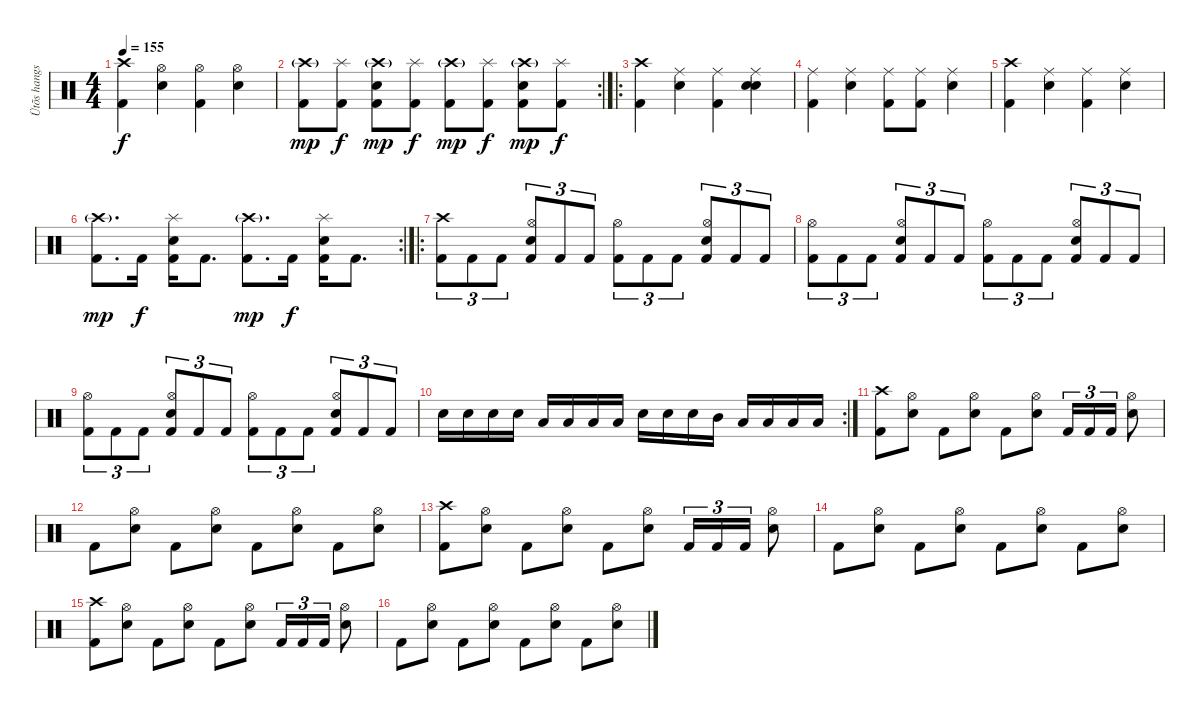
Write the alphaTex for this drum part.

\track ("Ütõs hangszer" "Ütõs hangs") {instrument percussion}
\staff {score}
\articulation defaults
\ts (4 4)
\tempo 155
\clef neutral
\ks c
("Crash high (hit)" "Kick (hit) 2").4{dy f} ("Hi-Hat (open)" "Snare (hit) 2").4 ("Hi-Hat (open)" "Kick (hit) 2").4 ("Hi-Hat (open)" "Snare (hit) 2").4 |
\rc 2
("Crash high (hit)"{g} "Kick (hit) 2").8{dy mp} ("Splash (hit)" "Kick (hit) 2").8{dy f} ("Crash high (hit)"{g} "Snare (hit) 2" "Kick (hit) 2").8{dy mp} ("Splash (hit)" "Kick (hit) 2").8{dy f} ("Crash high (hit)"{g} "Kick (hit) 2").8{dy mp} ("Splash (hit)" "Kick (hit) 2").8{dy f} ("Crash high (hit)"{g} "Snare (hit) 2" "Kick (hit) 2").8{dy mp} ("Splash (hit)" "Kick (hit) 2").8{dy f} |
\ro
("Crash high (hit)" "Kick (hit) 2").4 ("Ride (middle)" "Snare (hit) 2").4 ("Ride (middle)" "Kick (hit) 2").4 ("Ride (middle)" "Snare (hit)" "Snare (hit) 2").4 |
("Ride (middle)" "Kick (hit) 2").4 ("Ride (middle)" "Snare (hit) 2").4 ("Ride (middle)" "Kick (hit) 2").8 ("Ride (middle)" "Kick (hit) 2").8 ("Ride (middle)" "Snare (hit) 2").4 |
("Crash high (hit)" "Kick (hit) 2").4 ("Ride (middle)" "Snare (hit) 2").4 ("Ride (middle)" "Kick (hit) 2").4 ("Ride (middle)" "Snare (hit) 2").4 |
\rc 2
("Crash high (hit)"{g} "Kick (hit) 2").8{d dy mp} "Kick (hit) 2".16{dy f} ("Splash (hit)" "Snare (hit) 2" "Kick (hit) 2").16 "Kick (hit) 2".8{d} ("Crash high (hit)"{g} "Kick (hit) 2").8{d dy mp} "Kick (hit) 2".16{dy f} ("Splash (hit)" "Snare (hit) 2" "Kick (hit) 2").16 "Kick (hit) 2".8{d} |
\ro
("Crash high (hit)" "Kick (hit) 2").8{tu (3 2)} "Kick (hit) 2".8{tu (3 2)} "Kick (hit) 2".8{tu (3 2)} ("Hi-Hat (open)" "Snare (hit) 2" "Kick (hit) 2").8{tu (3 2)} "Kick (hit) 2".8{tu (3 2)} "Kick (hit) 2".8{tu (3 2)} ("Hi-Hat (open)" "Kick (hit) 2").8{tu (3 2)} "Kick (hit) 2".8{tu (3 2)} "Kick (hit) 2".8{tu (3 2)} ("Hi-Hat (open)" "Snare (hit) 2" "Kick (hit) 2").8{tu (3 2)} "Kick (hit) 2".8{tu (3 2)} "Kick (hit) 2".8{tu (3 2)} |
("Hi-Hat (open)" "Kick (hit) 2").8{tu (3 2)} "Kick (hit) 2".8{tu (3 2)} "Kick (hit) 2".8{tu (3 2)} ("Hi-Hat (open)" "Snare (hit) 2" "Kick (hit) 2").8{tu (3 2)} "Kick (hit) 2".8{tu (3 2)} "Kick (hit) 2".8{tu (3 2)} ("Hi-Hat (open)" "Kick (hit) 2").8{tu (3 2)} "Kick (hit) 2".8{tu (3 2)} "Kick (hit) 2".8{tu (3 2)} ("Hi-Hat (open)" "Snare (hit) 2" "Kick (hit) 2").8{tu (3 2)} "Kick (hit) 2".8{tu (3 2)} "Kick (hit) 2".8{tu (3 2)} |
("Hi-Hat (open)" "Kick (hit) 2").8{tu (3 2)} "Kick (hit) 2".8{tu (3 2)} "Kick (hit) 2".8{tu (3 2)} ("Hi-Hat (open)" "Snare (hit) 2" "Kick (hit) 2").8{tu (3 2)} "Kick (hit) 2".8{tu (3 2)} "Kick (hit) 2".8{tu (3 2)} ("Hi-Hat (open)" "Kick (hit) 2").8{tu (3 2)} "Kick (hit) 2".8{tu (3 2)} "Kick (hit) 2".8{tu (3 2)} ("Hi-Hat (open)" "Snare (hit) 2" "Kick (hit) 2").8{tu (3 2)} "Kick (hit) 2".8{tu (3 2)} "Kick (hit) 2".8{tu (3 2)} |
\rc 2 "Snare (hit) 2".16 "Snare (hit) 2".16 "Snare (hit) 2".16 "Snare (hit) 2".16 "Low Tom (hit)".16 "Low Tom (hit)".16 "Low Tom (hit)".16 "Low Tom (hit)".16 "Snare (hit) 2".16 "Snare (hit) 2".16 "Snare (hit) 2".16 "Mid Tom (hit)".16 "Low Tom (hit)".16 "Low Tom (hit)".16 "Low Tom (hit)".16 "Low Tom (hit)".16
|
("Crash high (hit)" "Kick (hit) 2").8 ("Hi-Hat (open)" "Snare (hit) 2").8 "Kick (hit) 2".8 ("Hi-Hat (open)" "Snare (hit) 2").8 "Kick (hit) 2".8 ("Hi-Hat (open)" "Snare (hit) 2").8 "Kick (hit) 2".16{tu (3 2)} "Kick (hit) 2".16{tu (3 2)} "Kick (hit) 2".16{tu (3 2)} ("Hi-Hat (open)" "Snare (hit) 2").8 |
"Kick (hit) 2".8 ("Hi-Hat (open)" "Snare (hit) 2").8 "Kick (hit) 2".8 ("Hi-Hat (open)" "Snare (hit) 2").8 "Kick (hit) 2".8 ("Hi-Hat (open)" "Snare (hit) 2").8 "Kick (hit) 2".8 ("Hi-Hat (open)" "Snare (hit) 2").8 |
("Crash high (hit)" "Kick (hit) 2").8 ("Hi-Hat (open)" "Snare (hit) 2").8 "Kick (hit) 2".8 ("Hi-Hat (open)" "Snare (hit) 2").8 "Kick (hit) 2".8 ("Hi-Hat (open)" "Snare (hit) 2").8 "Kick (hit) 2".16{tu (3 2)} "Kick (hit) 2".16{tu (3 2)} "Kick (hit) 2".16{tu (3 2)} ("Hi-Hat (open)" "Snare (hit) 2").8 |
"Kick (hit) 2".8 ("Hi-Hat (open)" "Snare (hit) 2").8 "Kick (hit) 2".8 ("Hi-Hat (open)" "Snare (hit) 2").8 "Kick (hit) 2".8 ("Hi-Hat (open)" "Snare (hit) 2").8 "Kick (hit) 2".8 ("Hi-Hat (open)" "Snare (hit) 2").8 |
("Crash high (hit)" "Kick (hit) 2").8 ("Hi-Hat (open)" "Snare (hit) 2").8 "Kick (hit) 2".8 ("Hi-Hat (open)" "Snare (hit) 2").8 "Kick (hit) 2".8 ("Hi-Hat (open)" "Snare (hit) 2").8 "Kick (hit) 2".16{tu (3 2)} "Kick (hit) 2".16{tu (3 2)} "Kick (hit) 2".16{tu (3 2)} ("Hi-Hat (open)" "Snare (hit) 2").8 |
"Kick (hit) 2".8 ("Hi-Hat (open)" "Snare (hit) 2").8 "Kick (hit) 2".8 ("Hi-Hat (open)" "Snare (hit) 2").8 "Kick (hit) 2".8 ("Hi-Hat (open)" "Snare (hit) 2").8 "Kick (hit) 2".8 ("Hi-Hat (open)" "Snare (hit) 2").8
